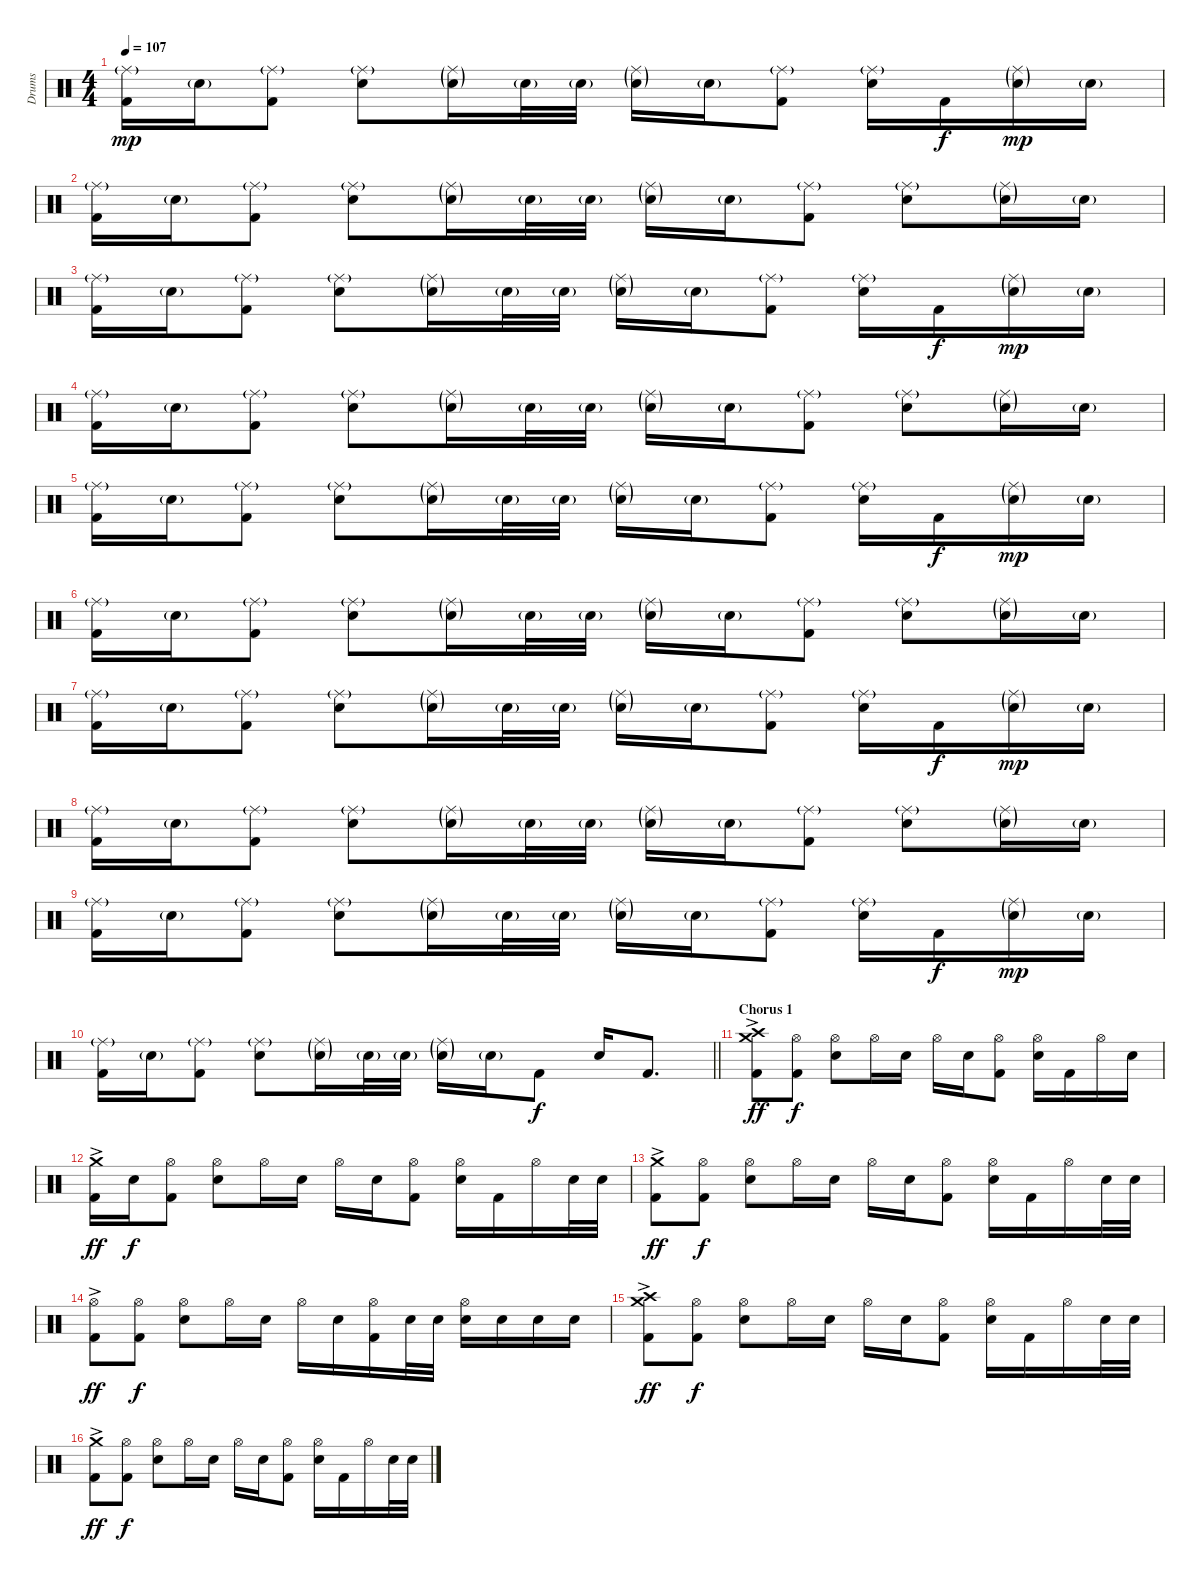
\track ("Drums" "Drums") {instrument percussion}
\staff {score}
\articulation defaults
\ts (4 4)
\tempo 107
\clef neutral
\ks c
("Ride (middle)"{g} "Kick (hit) 2").16{dy mp} "Electric Snare (hit)"{g}.16 ("Ride (middle)"{g} "Kick (hit) 2").8 ("Ride (middle)"{g} "Electric Snare (hit)").8 ("Ride (middle)"{g} "Electric Snare (hit)"{g}).16 "Electric Snare (hit)"{g}.32 "Electric Snare (hit)"{g}.32 ("Ride (middle)"{g} "Electric Snare (hit)"{g}).16 "Electric Snare (hit)"{g}.16 ("Ride (middle)"{g} "Kick (hit) 2").8 ("Ride (middle)"{g} "Electric Snare (hit)").16 "Kick (hit) 2".16{dy f} ("Ride (middle)"{g} "Electric Snare (hit)"{g}).16{dy mp} "Electric Snare (hit)"{g}.16 |
("Ride (middle)"{g} "Kick (hit) 2").16 "Electric Snare (hit)"{g}.16 ("Ride (middle)"{g} "Kick (hit) 2").8 ("Ride (middle)"{g} "Electric Snare (hit)").8 ("Ride (middle)"{g} "Electric Snare (hit)"{g}).16 "Electric Snare (hit)"{g}.32 "Electric Snare (hit)"{g}.32 ("Ride (middle)"{g} "Electric Snare (hit)"{g}).16 "Electric Snare (hit)"{g}.16 ("Ride (middle)"{g} "Kick (hit) 2").8 ("Ride (middle)"{g} "Electric Snare (hit)").8 ("Ride (middle)"{g} "Electric Snare (hit)"{g}).16 "Electric Snare (hit)"{g}.16 |
("Ride (middle)"{g} "Kick (hit) 2").16 "Electric Snare (hit)"{g}.16 ("Ride (middle)"{g} "Kick (hit) 2").8 ("Ride (middle)"{g} "Electric Snare (hit)").8 ("Ride (middle)"{g} "Electric Snare (hit)"{g}).16 "Electric Snare (hit)"{g}.32 "Electric Snare (hit)"{g}.32 ("Ride (middle)"{g} "Electric Snare (hit)"{g}).16 "Electric Snare (hit)"{g}.16 ("Ride (middle)"{g} "Kick (hit) 2").8 ("Ride (middle)"{g} "Electric Snare (hit)").16 "Kick (hit) 2".16{dy f} ("Ride (middle)"{g} "Electric Snare (hit)"{g}).16{dy mp} "Electric Snare (hit)"{g}.16 |
("Ride (middle)"{g} "Kick (hit) 2").16 "Electric Snare (hit)"{g}.16 ("Ride (middle)"{g} "Kick (hit) 2").8 ("Ride (middle)"{g} "Electric Snare (hit)").8 ("Ride (middle)"{g} "Electric Snare (hit)"{g}).16 "Electric Snare (hit)"{g}.32 "Electric Snare (hit)"{g}.32 ("Ride (middle)"{g} "Electric Snare (hit)"{g}).16 "Electric Snare (hit)"{g}.16 ("Ride (middle)"{g} "Kick (hit) 2").8 ("Ride (middle)"{g} "Electric Snare (hit)").8 ("Ride (middle)"{g} "Electric Snare (hit)"{g}).16 "Electric Snare (hit)"{g}.16 |
("Ride (middle)"{g} "Kick (hit) 2").16 "Electric Snare (hit)"{g}.16 ("Ride (middle)"{g} "Kick (hit) 2").8 ("Ride (middle)"{g} "Electric Snare (hit)").8 ("Ride (middle)"{g} "Electric Snare (hit)"{g}).16 "Electric Snare (hit)"{g}.32 "Electric Snare (hit)"{g}.32 ("Ride (middle)"{g} "Electric Snare (hit)"{g}).16 "Electric Snare (hit)"{g}.16 ("Ride (middle)"{g} "Kick (hit) 2").8 ("Ride (middle)"{g} "Electric Snare (hit)").16 "Kick (hit) 2".16{dy f} ("Ride (middle)"{g} "Electric Snare (hit)"{g}).16{dy mp} "Electric Snare (hit)"{g}.16 |
("Ride (middle)"{g} "Kick (hit) 2").16 "Electric Snare (hit)"{g}.16 ("Ride (middle)"{g} "Kick (hit) 2").8 ("Ride (middle)"{g} "Electric Snare (hit)").8 ("Ride (middle)"{g} "Electric Snare (hit)"{g}).16 "Electric Snare (hit)"{g}.32 "Electric Snare (hit)"{g}.32 ("Ride (middle)"{g} "Electric Snare (hit)"{g}).16 "Electric Snare (hit)"{g}.16 ("Ride (middle)"{g} "Kick (hit) 2").8 ("Ride (middle)"{g} "Electric Snare (hit)").8 ("Ride (middle)"{g} "Electric Snare (hit)"{g}).16 "Electric Snare (hit)"{g}.16 |
("Ride (middle)"{g} "Kick (hit) 2").16 "Electric Snare (hit)"{g}.16 ("Ride (middle)"{g} "Kick (hit) 2").8 ("Ride (middle)"{g} "Electric Snare (hit)").8 ("Ride (middle)"{g} "Electric Snare (hit)"{g}).16 "Electric Snare (hit)"{g}.32 "Electric Snare (hit)"{g}.32 ("Ride (middle)"{g} "Electric Snare (hit)"{g}).16 "Electric Snare (hit)"{g}.16 ("Ride (middle)"{g} "Kick (hit) 2").8 ("Ride (middle)"{g} "Electric Snare (hit)").16 "Kick (hit) 2".16{dy f} ("Ride (middle)"{g} "Electric Snare (hit)"{g}).16{dy mp} "Electric Snare (hit)"{g}.16 |
("Ride (middle)"{g} "Kick (hit) 2").16 "Electric Snare (hit)"{g}.16 ("Ride (middle)"{g} "Kick (hit) 2").8 ("Ride (middle)"{g} "Electric Snare (hit)").8 ("Ride (middle)"{g} "Electric Snare (hit)"{g}).16 "Electric Snare (hit)"{g}.32 "Electric Snare (hit)"{g}.32 ("Ride (middle)"{g} "Electric Snare (hit)"{g}).16 "Electric Snare (hit)"{g}.16 ("Ride (middle)"{g} "Kick (hit) 2").8 ("Ride (middle)"{g} "Electric Snare (hit)").8 ("Ride (middle)"{g} "Electric Snare (hit)"{g}).16 "Electric Snare (hit)"{g}.16 |
("Ride (middle)"{g} "Kick (hit) 2").16 "Electric Snare (hit)"{g}.16 ("Ride (middle)"{g} "Kick (hit) 2").8 ("Ride (middle)"{g} "Electric Snare (hit)").8 ("Ride (middle)"{g} "Electric Snare (hit)"{g}).16 "Electric Snare (hit)"{g}.32 "Electric Snare (hit)"{g}.32 ("Ride (middle)"{g} "Electric Snare (hit)"{g}).16 "Electric Snare (hit)"{g}.16 ("Ride (middle)"{g} "Kick (hit) 2").8 ("Ride (middle)"{g} "Electric Snare (hit)").16 "Kick (hit) 2".16{dy f} ("Ride (middle)"{g} "Electric Snare (hit)"{g}).16{dy mp} "Electric Snare (hit)"{g}.16 |
\barLineRight lightlight
("Ride (middle)"{g} "Kick (hit) 2").16 "Electric Snare (hit)"{g}.16 ("Ride (middle)"{g} "Kick (hit) 2").8 ("Ride (middle)"{g} "Electric Snare (hit)").8 ("Ride (middle)"{g} "Electric Snare (hit)"{g}).16 "Electric Snare (hit)"{g}.32 "Electric Snare (hit)"{g}.32 ("Ride (middle)"{g} "Electric Snare (hit)"{g}).16 "Electric Snare (hit)"{g}.16 "Kick (hit) 2".8{dy f volume 16} "Electric Snare (hit)".16 "Kick (hit) 2".8{d} |
\section ("" "Chorus 1")
("Crash high (hit)" "Crash medium (hit)" "Kick (hit) 2"{ac}).8{dy ff} ("Hi-Hat (open)" "Kick (hit) 2").8{dy f} ("Hi-Hat (open)" "Electric Snare (hit)").8 "Hi-Hat (open)".16 "Electric Snare (hit)".16 "Hi-Hat (open)".16 "Electric Snare (hit)".16 ("Hi-Hat (open)" "Kick (hit) 2").8 ("Hi-Hat (open)" "Electric Snare (hit)").16 "Kick (hit) 2".16 "Hi-Hat (open)".16 "Electric Snare (hit)".16 |
("Crash medium (hit)" "Kick (hit) 2"{ac}).16{dy ff} "Electric Snare (hit)".16{dy f} ("Hi-Hat (open)" "Kick (hit) 2").8 ("Hi-Hat (open)" "Electric Snare (hit)").8 "Hi-Hat (open)".16 "Electric Snare (hit)".16 "Hi-Hat (open)".16 "Electric Snare (hit)".16 ("Hi-Hat (open)" "Kick (hit) 2").8 ("Hi-Hat (open)" "Electric Snare (hit)").16 "Kick (hit) 2".16 "Hi-Hat (open)".16 "Electric Snare (hit)".32 "Electric Snare (hit)".32 |
("Crash medium (hit)" "Kick (hit) 2"{ac}).8{dy ff} ("Hi-Hat (open)" "Kick (hit) 2").8{dy f} ("Hi-Hat (open)" "Electric Snare (hit)").8 "Hi-Hat (open)".16 "Electric Snare (hit)".16 "Hi-Hat (open)".16 "Electric Snare (hit)".16 ("Hi-Hat (open)" "Kick (hit) 2").8 ("Hi-Hat (open)" "Electric Snare (hit)").16 "Kick (hit) 2".16 "Hi-Hat (open)".16 "Electric Snare (hit)".32 "Electric Snare (hit)".32 |
("Hi-Hat (open)" "Kick (hit) 2"{ac}).8{dy ff} ("Hi-Hat (open)" "Kick (hit) 2").8{dy f} ("Hi-Hat (open)" "Electric Snare (hit)").8 "Hi-Hat (open)".16 "Electric Snare (hit)".16 "Hi-Hat (open)".16 "Electric Snare (hit)".16 ("Hi-Hat (open)" "Kick (hit) 2").16 "Electric Snare (hit)".32 "Electric Snare (hit)".32 ("Hi-Hat (open)" "Electric Snare (hit)").16 "Electric Snare (hit)".16 "Electric Snare (hit)".16 "Electric Snare (hit)".16 |
("Crash high (hit)" "Crash medium (hit)" "Kick (hit) 2"{ac}).8{dy ff} ("Hi-Hat (open)" "Kick (hit) 2").8{dy f} ("Hi-Hat (open)" "Electric Snare (hit)").8 "Hi-Hat (open)".16 "Electric Snare (hit)".16 "Hi-Hat (open)".16 "Electric Snare (hit)".16 ("Hi-Hat (open)" "Kick (hit) 2").8 ("Hi-Hat (open)" "Electric Snare (hit)").16 "Kick (hit) 2".16 "Hi-Hat (open)".16 "Electric Snare (hit)".32 "Electric Snare (hit)".32 |
("Crash medium (hit)" "Kick (hit) 2"{ac}).8{dy ff} ("Hi-Hat (open)" "Kick (hit) 2").8{dy f} ("Hi-Hat (open)" "Electric Snare (hit)").8 "Hi-Hat (open)".16 "Electric Snare (hit)".16 "Hi-Hat (open)".16 "Electric Snare (hit)".16 ("Hi-Hat (open)" "Kick (hit) 2").8 ("Hi-Hat (open)" "Electric Snare (hit)").16 "Kick (hit) 2".16 "Hi-Hat (open)".16 "Electric Snare (hit)".32 "Electric Snare (hit)".32
